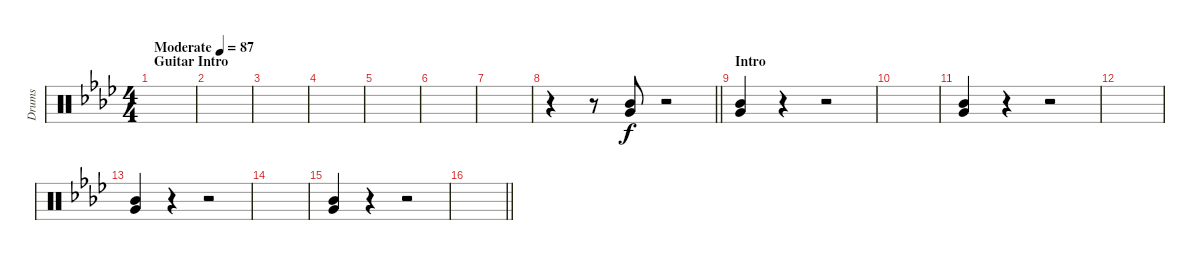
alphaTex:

\track ("Drums" "Drums") {instrument percussion}
\staff {score}
\articulation defaults
\ts (4 4)
\section ("" "Guitar Intro")
\tempo (87 "Moderate")
\clef neutral
\ks fminor
|
|
|
|
|
|
|
\barLineRight lightlight
r.4 r.8 ("Mid Tom (hit)" "Very Low Tom (hit)").8 r.2 |
\section ("" "Intro")
("Mid Tom (hit)" "Very Low Tom (hit)").4 r.4 r.2 |
|
("Mid Tom (hit)" "Very Low Tom (hit)").4 r.4 r.2 |
|
("Mid Tom (hit)" "Very Low Tom (hit)").4 r.4 r.2 |
|
("Mid Tom (hit)" "Very Low Tom (hit)").4 r.4 r.2 |
\barLineRight lightlight
